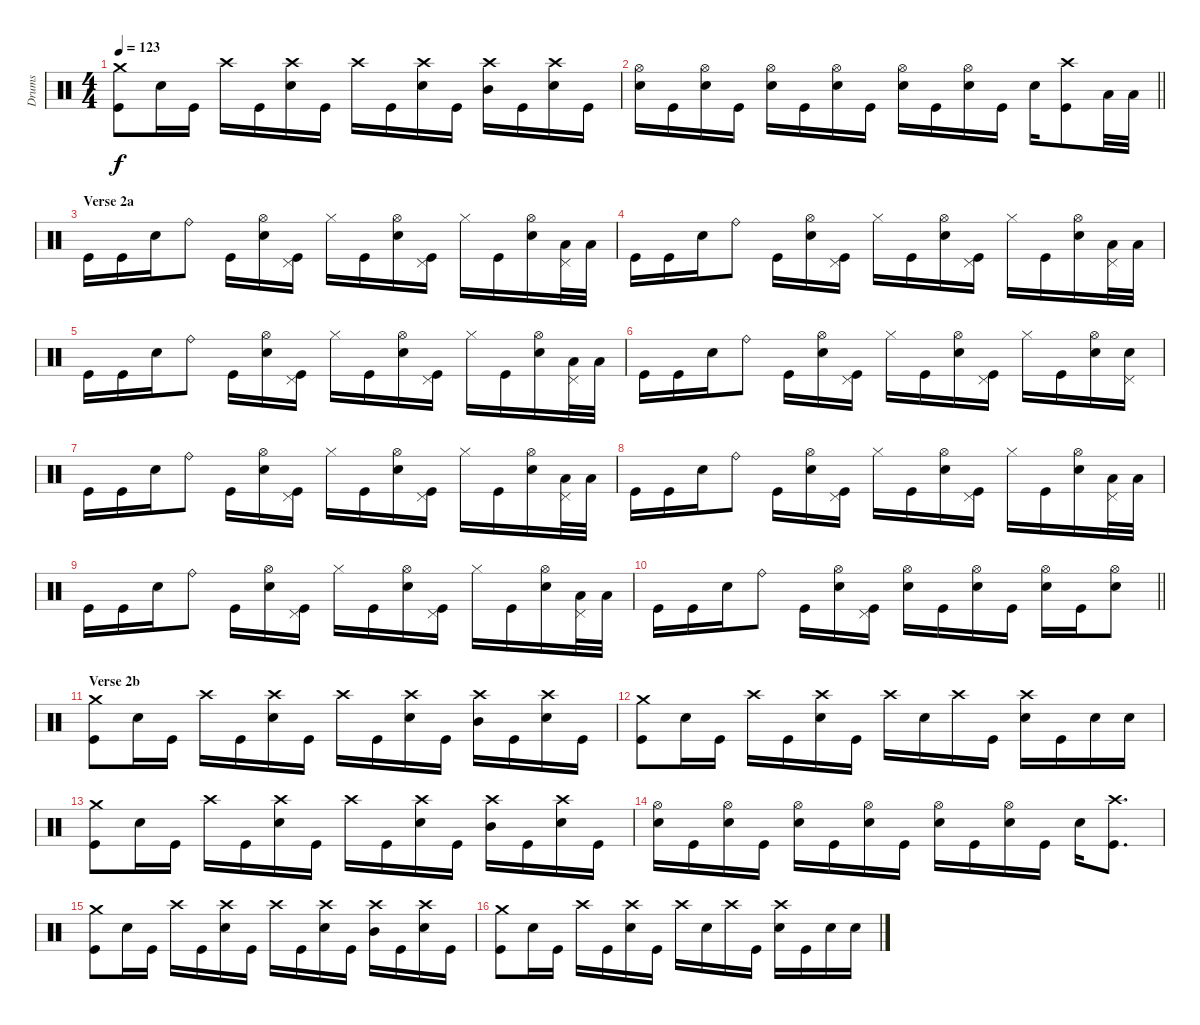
\track ("Drums" "Drums") {instrument percussion}
\staff {score}
\articulation defaults
\ts (4 4)
\tempo 123
\clef neutral
\ks c
("Crash medium (hit)" "Kick (hit)").8{dy f} "Snare (hit) 2".16 "Kick (hit)".16 "Crash high (hit)".16 "Kick (hit)".16 ("Crash high (hit)" "Snare (hit) 2").16 "Kick (hit)".16 "Crash high (hit)".16 "Kick (hit)".16 ("Crash high (hit)" "Snare (hit) 2").16 "Kick (hit)".16 ("Crash high (hit)" "Mid Tom (hit)").16 "Kick (hit)".16 ("Crash high (hit)" "Snare (hit) 2").16 "Kick (hit)".16 |
\barLineRight lightlight
("Hi-Hat (open)" "Snare (hit) 2").16 "Kick (hit)".16 ("Hi-Hat (open)" "Snare (hit) 2").16 "Kick (hit)".16 ("Hi-Hat (open)" "Snare (hit) 2").16 "Kick (hit)".16 ("Hi-Hat (open)" "Snare (hit) 2").16 "Kick (hit)".16 ("Hi-Hat (open)" "Snare (hit) 2").16 "Kick (hit)".16 ("Hi-Hat (open)" "Snare (hit) 2").16 "Kick (hit)".16 "Snare (hit) 2".16 ("Crash high (hit)" "Kick (hit)").8 "Low Tom (hit)".32 "Low Tom (hit)".32 |
\section ("" "Verse 2a")
"Kick (hit)".16 "Kick (hit)".16 "Snare (hit) 2".16 "Ride (bell)".8 "Kick (hit)".16 ("Hi-Hat (open)" "Snare (hit) 2").16 ("Pedal Hi-Hat (hit)" "Kick (hit)").16 "Hi-Hat (closed)".16 "Kick (hit)".16 ("Hi-Hat (open)" "Snare (hit) 2").16 ("Pedal Hi-Hat (hit)" "Kick (hit)").16 "Hi-Hat (closed)".16 "Kick (hit)".16 ("Hi-Hat (open)" "Snare (hit) 2").16 ("Pedal Hi-Hat (hit)" "Low Tom (hit)").32 "Low Tom (hit)".32 |
"Kick (hit)".16 "Kick (hit)".16 "Snare (hit) 2".16 "Ride (bell)".8 "Kick (hit)".16 ("Hi-Hat (open)" "Snare (hit) 2").16 ("Pedal Hi-Hat (hit)" "Kick (hit)").16 "Hi-Hat (closed)".16 "Kick (hit)".16 ("Hi-Hat (open)" "Snare (hit) 2").16 ("Pedal Hi-Hat (hit)" "Kick (hit)").16 "Hi-Hat (closed)".16 "Kick (hit)".16 ("Hi-Hat (open)" "Snare (hit) 2").16 ("Pedal Hi-Hat (hit)" "Low Tom (hit)").32 "Low Tom (hit)".32 |
"Kick (hit)".16 "Kick (hit)".16 "Snare (hit) 2".16 "Ride (bell)".8 "Kick (hit)".16 ("Hi-Hat (open)" "Snare (hit) 2").16 ("Pedal Hi-Hat (hit)" "Kick (hit)").16 "Hi-Hat (closed)".16 "Kick (hit)".16 ("Hi-Hat (open)" "Snare (hit) 2").16 ("Pedal Hi-Hat (hit)" "Kick (hit)").16 "Hi-Hat (closed)".16 "Kick (hit)".16 ("Hi-Hat (open)" "Snare (hit) 2").16 ("Pedal Hi-Hat (hit)" "Low Tom (hit)").32 "Low Tom (hit)".32 |
"Kick (hit)".16 "Kick (hit)".16 "Snare (hit) 2".16 "Ride (bell)".8 "Kick (hit)".16 ("Hi-Hat (open)" "Snare (hit) 2").16 ("Pedal Hi-Hat (hit)" "Kick (hit)").16 "Hi-Hat (closed)".16 "Kick (hit)".16 ("Hi-Hat (open)" "Snare (hit) 2").16 ("Pedal Hi-Hat (hit)" "Kick (hit)").16 "Hi-Hat (closed)".16 "Kick (hit)".16 ("Hi-Hat (open)" "Snare (hit) 2").16 ("Pedal Hi-Hat (hit)" "Snare (hit) 2").16 |
"Kick (hit)".16 "Kick (hit)".16 "Snare (hit) 2".16 "Ride (bell)".8 "Kick (hit)".16 ("Hi-Hat (open)" "Snare (hit) 2").16 ("Pedal Hi-Hat (hit)" "Kick (hit)").16 "Hi-Hat (closed)".16 "Kick (hit)".16 ("Hi-Hat (open)" "Snare (hit) 2").16 ("Pedal Hi-Hat (hit)" "Kick (hit)").16 "Hi-Hat (closed)".16 "Kick (hit)".16 ("Hi-Hat (open)" "Snare (hit) 2").16 ("Pedal Hi-Hat (hit)" "Low Tom (hit)").32 "Low Tom (hit)".32 |
"Kick (hit)".16 "Kick (hit)".16 "Snare (hit) 2".16 "Ride (bell)".8 "Kick (hit)".16 ("Hi-Hat (open)" "Snare (hit) 2").16 ("Pedal Hi-Hat (hit)" "Kick (hit)").16 "Hi-Hat (closed)".16 "Kick (hit)".16 ("Hi-Hat (open)" "Snare (hit) 2").16 ("Pedal Hi-Hat (hit)" "Kick (hit)").16 "Hi-Hat (closed)".16 "Kick (hit)".16 ("Hi-Hat (open)" "Snare (hit) 2").16 ("Pedal Hi-Hat (hit)" "Low Tom (hit)").32 "Low Tom (hit)".32 |
"Kick (hit)".16 "Kick (hit)".16 "Snare (hit) 2".16 "Ride (bell)".8 "Kick (hit)".16 ("Hi-Hat (open)" "Snare (hit) 2").16 ("Pedal Hi-Hat (hit)" "Kick (hit)").16 "Hi-Hat (closed)".16 "Kick (hit)".16 ("Hi-Hat (open)" "Snare (hit) 2").16 ("Pedal Hi-Hat (hit)" "Kick (hit)").16 "Hi-Hat (closed)".16 "Kick (hit)".16 ("Hi-Hat (open)" "Snare (hit) 2").16 ("Pedal Hi-Hat (hit)" "Low Tom (hit)").32 "Low Tom (hit)".32 |
\barLineRight lightlight "Kick (hit)".16 "Kick (hit)".16 "Snare (hit) 2".16 "Ride (bell)".8 "Kick (hit)".16
("Hi-Hat (open)" "Snare (hit) 2").16 ("Pedal Hi-Hat (hit)" "Kick (hit)").16 ("Hi-Hat (open)" "Snare (hit) 2").16 "Kick (hit)".16 ("Hi-Hat (open)" "Snare (hit) 2").16 "Kick (hit)".16 ("Hi-Hat (open)" "Snare (hit) 2").16 "Kick (hit)".16 ("Hi-Hat (open)" "Snare (hit) 2").8 |
\section ("" "Verse 2b")
("Crash medium (hit)" "Kick (hit)").8 "Snare (hit) 2".16 "Kick (hit)".16 "Crash high (hit)".16 "Kick (hit)".16 ("Crash high (hit)" "Snare (hit) 2").16 "Kick (hit)".16 "Crash high (hit)".16 "Kick (hit)".16 ("Crash high (hit)" "Snare (hit) 2").16 "Kick (hit)".16 ("Crash high (hit)" "Mid Tom (hit)").16 "Kick (hit)".16 ("Crash high (hit)" "Snare (hit) 2").16 "Kick (hit)".16 |
("Crash medium (hit)" "Kick (hit)").8 "Snare (hit) 2".16 "Kick (hit)".16 "Crash high (hit)".16 "Kick (hit)".16 ("Crash high (hit)" "Snare (hit) 2").16 "Kick (hit)".16 "Crash high (hit)".16 "Snare (hit) 2".16 "Crash high (hit)".16 "Kick (hit)".16 ("Crash high (hit)" "Snare (hit) 2").16 "Kick (hit)".16 "Snare (hit) 2".16 "Snare (hit) 2".16 |
("Crash medium (hit)" "Kick (hit)").8 "Snare (hit) 2".16 "Kick (hit)".16 "Crash high (hit)".16 "Kick (hit)".16 ("Crash high (hit)" "Snare (hit) 2").16 "Kick (hit)".16 "Crash high (hit)".16 "Kick (hit)".16 ("Crash high (hit)" "Snare (hit) 2").16 "Kick (hit)".16 ("Crash high (hit)" "Mid Tom (hit)").16 "Kick (hit)".16 ("Crash high (hit)" "Snare (hit) 2").16 "Kick (hit)".16 |
("Hi-Hat (open)" "Snare (hit) 2").16 "Kick (hit)".16 ("Hi-Hat (open)" "Snare (hit) 2").16 "Kick (hit)".16 ("Hi-Hat (open)" "Snare (hit) 2").16 "Kick (hit)".16 ("Hi-Hat (open)" "Snare (hit) 2").16 "Kick (hit)".16 ("Hi-Hat (open)" "Snare (hit) 2").16 "Kick (hit)".16 ("Hi-Hat (open)" "Snare (hit) 2").16 "Kick (hit)".16 "Snare (hit) 2".16 ("Crash high (hit)" "Kick (hit)").8{d} |
("Crash medium (hit)" "Kick (hit)").8 "Snare (hit) 2".16 "Kick (hit)".16 "Crash high (hit)".16 "Kick (hit)".16 ("Crash high (hit)" "Snare (hit) 2").16 "Kick (hit)".16 "Crash high (hit)".16 "Kick (hit)".16 ("Crash high (hit)" "Snare (hit) 2").16 "Kick (hit)".16 ("Crash high (hit)" "Mid Tom (hit)").16 "Kick (hit)".16 ("Crash high (hit)" "Snare (hit) 2").16 "Kick (hit)".16 |
("Crash medium (hit)" "Kick (hit)").8 "Snare (hit) 2".16 "Kick (hit)".16 "Crash high (hit)".16 "Kick (hit)".16 ("Crash high (hit)" "Snare (hit) 2").16 "Kick (hit)".16 "Crash high (hit)".16 "Snare (hit) 2".16 "Crash high (hit)".16 "Kick (hit)".16 ("Crash high (hit)" "Snare (hit) 2").16 "Kick (hit)".16 "Snare (hit) 2".16 "Snare (hit) 2".16
